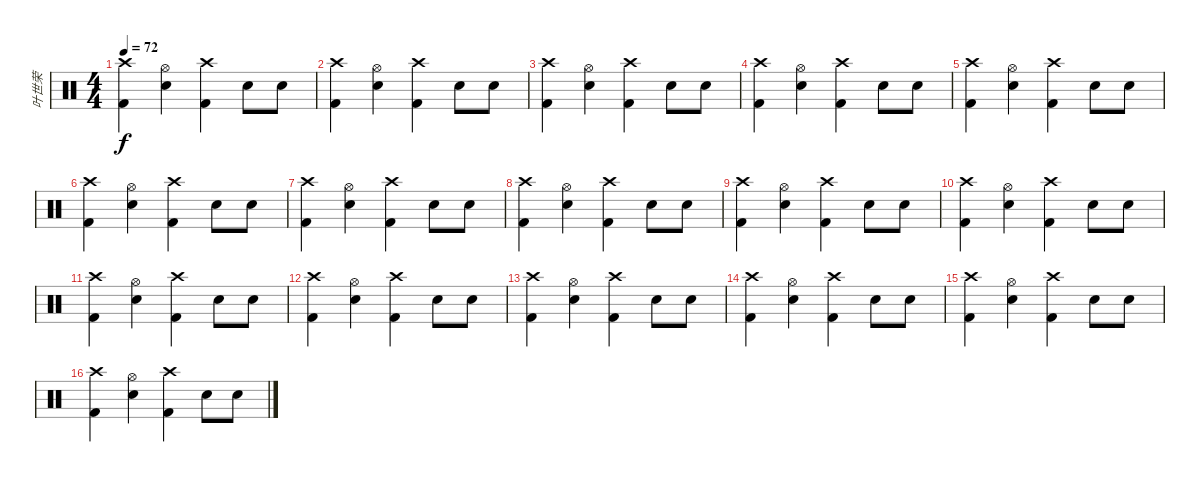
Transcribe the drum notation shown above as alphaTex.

\track ("叶世荣" "叶世荣") {instrument percussion}
\staff {score}
\articulation defaults
\ts (4 4)
\tempo 72
\clef neutral
\ks c
("Crash high (hit)" "Kick (hit) 2").4{dy f} ("Hi-Hat (open)" "Electric Snare (hit)").4 ("Crash high (hit)" "Kick (hit) 2").4 "Electric Snare (hit)".8 "Electric Snare (hit)".8 |
("Crash high (hit)" "Kick (hit) 2").4 ("Hi-Hat (open)" "Electric Snare (hit)").4 ("Crash high (hit)" "Kick (hit) 2").4 "Electric Snare (hit)".8 "Electric Snare (hit)".8 |
("Crash high (hit)" "Kick (hit) 2").4 ("Hi-Hat (open)" "Electric Snare (hit)").4 ("Crash high (hit)" "Kick (hit) 2").4 "Electric Snare (hit)".8 "Electric Snare (hit)".8 |
("Crash high (hit)" "Kick (hit) 2").4 ("Hi-Hat (open)" "Electric Snare (hit)").4 ("Crash high (hit)" "Kick (hit) 2").4 "Electric Snare (hit)".8 "Electric Snare (hit)".8 |
("Crash high (hit)" "Kick (hit) 2").4 ("Hi-Hat (open)" "Electric Snare (hit)").4 ("Crash high (hit)" "Kick (hit) 2").4 "Electric Snare (hit)".8 "Electric Snare (hit)".8 |
("Crash high (hit)" "Kick (hit) 2").4 ("Hi-Hat (open)" "Electric Snare (hit)").4 ("Crash high (hit)" "Kick (hit) 2").4 "Electric Snare (hit)".8 "Electric Snare (hit)".8 |
("Crash high (hit)" "Kick (hit) 2").4 ("Hi-Hat (open)" "Electric Snare (hit)").4 ("Crash high (hit)" "Kick (hit) 2").4 "Electric Snare (hit)".8 "Electric Snare (hit)".8 |
("Crash high (hit)" "Kick (hit) 2").4 ("Hi-Hat (open)" "Electric Snare (hit)").4 ("Crash high (hit)" "Kick (hit) 2").4 "Electric Snare (hit)".8 "Electric Snare (hit)".8 |
("Crash high (hit)" "Kick (hit) 2").4 ("Hi-Hat (open)" "Electric Snare (hit)").4 ("Crash high (hit)" "Kick (hit) 2").4 "Electric Snare (hit)".8 "Electric Snare (hit)".8 |
("Crash high (hit)" "Kick (hit) 2").4 ("Hi-Hat (open)" "Electric Snare (hit)").4 ("Crash high (hit)" "Kick (hit) 2").4 "Electric Snare (hit)".8 "Electric Snare (hit)".8 |
("Crash high (hit)" "Kick (hit) 2").4 ("Hi-Hat (open)" "Electric Snare (hit)").4 ("Crash high (hit)" "Kick (hit) 2").4 "Electric Snare (hit)".8 "Electric Snare (hit)".8 |
("Crash high (hit)" "Kick (hit) 2").4 ("Hi-Hat (open)" "Electric Snare (hit)").4 ("Crash high (hit)" "Kick (hit) 2").4 "Electric Snare (hit)".8 "Electric Snare (hit)".8 |
("Crash high (hit)" "Kick (hit) 2").4 ("Hi-Hat (open)" "Electric Snare (hit)").4 ("Crash high (hit)" "Kick (hit) 2").4 "Electric Snare (hit)".8 "Electric Snare (hit)".8 |
("Crash high (hit)" "Kick (hit) 2").4 ("Hi-Hat (open)" "Electric Snare (hit)").4 ("Crash high (hit)" "Kick (hit) 2").4 "Electric Snare (hit)".8 "Electric Snare (hit)".8 |
("Crash high (hit)" "Kick (hit) 2").4 ("Hi-Hat (open)" "Electric Snare (hit)").4 ("Crash high (hit)" "Kick (hit) 2").4 "Electric Snare (hit)".8 "Electric Snare (hit)".8 |
("Crash high (hit)" "Kick (hit) 2").4 ("Hi-Hat (open)" "Electric Snare (hit)").4 ("Crash high (hit)" "Kick (hit) 2").4 "Electric Snare (hit)".8 "Electric Snare (hit)".8
